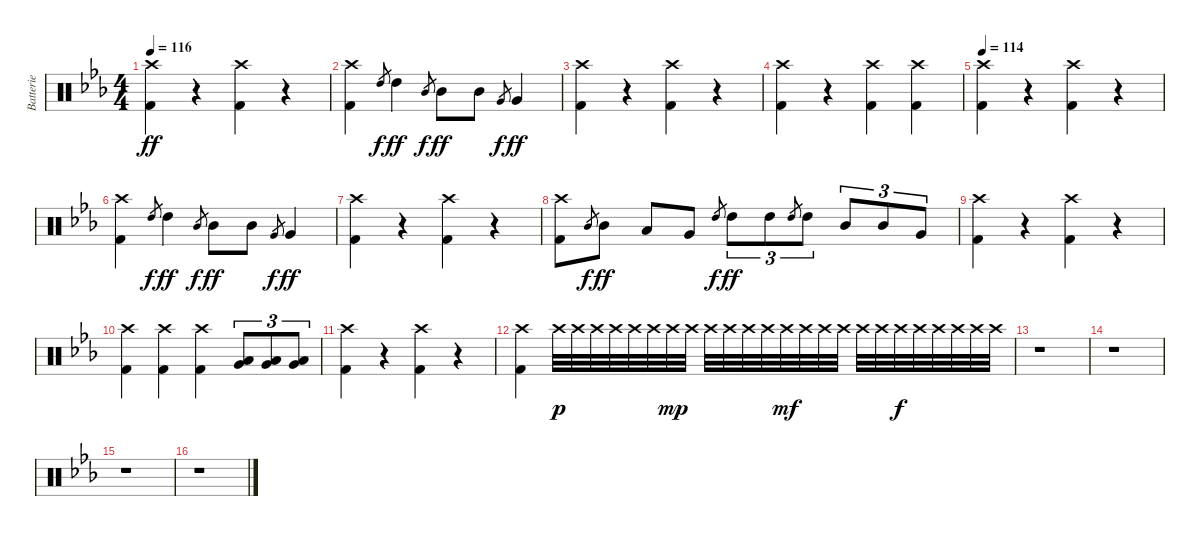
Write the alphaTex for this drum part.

\track ("Batterie" "Batterie") {instrument percussion}
\staff {score}
\articulation defaults
\ts (4 4)
\tempo 116
\clef neutral
\ks eb
("Crash high (hit)" "Kick (hit) 2").4{dy ff} r.4 ("Crash high (hit)" "Kick (hit) 2").4 r.4 |
("Crash high (hit)" "Kick (hit) 2").4 "High Tom (hit)".8{gr dy f} "High Tom (hit)".4{dy ff} "Mid Tom (hit)".8{gr dy f} "Mid Tom (hit)".8{dy ff} "Mid Tom (hit)".8 "Very Low Tom (hit)".8{gr dy f} "Very Low Tom (hit)".4{dy ff} |
("Crash high (hit)" "Kick (hit) 2").4 r.4 ("Crash high (hit)" "Kick (hit) 2").4 r.4 |
("Crash high (hit)" "Kick (hit) 2").4 r.4 ("Crash high (hit)" "Kick (hit) 2").4 ("Crash high (hit)" "Kick (hit) 2").4 |
\tempo 114
("Crash high (hit)" "Kick (hit) 2").4 r.4 ("Crash high (hit)" "Kick (hit) 2").4 r.4 |
("Crash high (hit)" "Kick (hit) 2").4 "High Tom (hit)".8{gr dy f} "High Tom (hit)".4{dy ff} "Mid Tom (hit)".8{gr dy f} "Mid Tom (hit)".8{dy ff} "Mid Tom (hit)".8 "Very Low Tom (hit)".8{gr dy f} "Very Low Tom (hit)".4{dy ff} |
("Crash high (hit)" "Kick (hit) 2").4 r.4 ("Crash high (hit)" "Kick (hit) 2").4 r.4 |
("Crash high (hit)" "Kick (hit) 2").8 "Mid Tom (hit)".8{gr dy f} "Mid Tom (hit)".8{dy ff} "Low Tom (hit)".8 "Very Low Tom (hit)".8 "High Tom (hit)".8{gr dy f} "High Tom (hit)".8{tu (3 2) dy ff} "High Tom (hit)".8{tu (3 2)} "High Tom (hit)".8{gr} "High Tom (hit)".8{tu (3 2)} "Mid Tom (hit)".8{tu (3 2)} "Mid Tom (hit)".8{tu (3 2)} "Very Low Tom (hit)".8{tu (3 2)} |
("Crash high (hit)" "Kick (hit) 2").4 r.4 ("Crash high (hit)" "Kick (hit) 2").4 r.4 |
("Crash high (hit)" "Kick (hit) 2").4 ("Crash high (hit)" "Kick (hit) 2").4 ("Crash high (hit)" "Kick (hit) 2").4 ("Low Tom (hit)" "Very Low Tom (hit)").8{tu (3 2)} ("Low Tom (hit)" "Very Low Tom (hit)").8{tu (3 2)} ("Low Tom (hit)" "Very Low Tom (hit)").8{tu (3 2)} |
("Crash high (hit)" "Kick (hit) 2").4 r.4 ("Crash high (hit)" "Kick (hit) 2").4 r.4 |
("Crash high (hit)" "Kick (hit) 2").4 "Crash high (hit)".32{dy p} "Crash high (hit)".32 "Crash high (hit)".32 "Crash high (hit)".32 "Crash high (hit)".32 "Crash high (hit)".32 "Crash high (hit)".32{dy mp} "Crash high (hit)".32 "Crash high (hit)".32 "Crash high (hit)".32 "Crash high (hit)".32 "Crash high (hit)".32 "Crash high (hit)".32{dy mf} "Crash high (hit)".32 "Crash high (hit)".32 "Crash high (hit)".32 "Crash high (hit)".32 "Crash high (hit)".32 "Crash high (hit)".32{dy f} "Crash high (hit)".32 "Crash high (hit)".32 "Crash high (hit)".32 "Crash high (hit)".32 "Crash high (hit)".32 |
r.1 |
r.1 |
r.1 |
r.1
